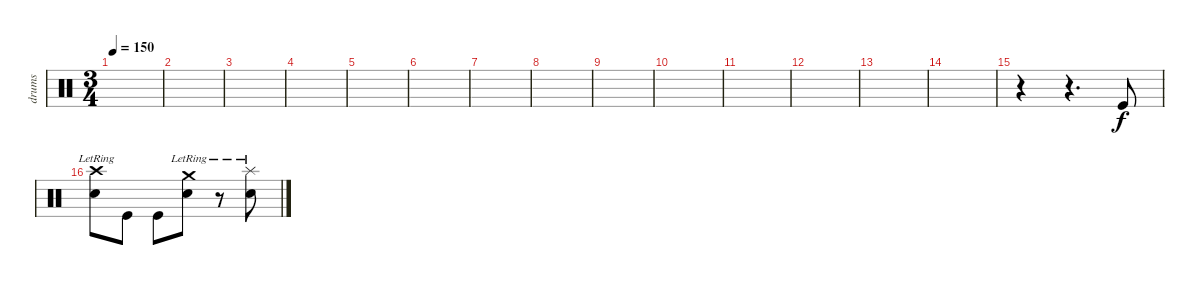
\track ("drums" "drums") {instrument percussion}
\staff {score}
\articulation defaults
\ts (3 4)
\tempo 150
\clef neutral
\ks c
|
|
|
|
|
|
|
|
|
|
|
|
|
|
r.4 r.4{d} "Kick (hit)".8 |
("Crash high (hit)"{lr} "Snare (hit) 2").8 "Kick (hit)".8 "Kick (hit)".8 ("Crash medium (hit)"{lr} "Snare (hit) 2").8 r.8 ("Splash (hit)"{lr} "Snare (hit) 2").8
